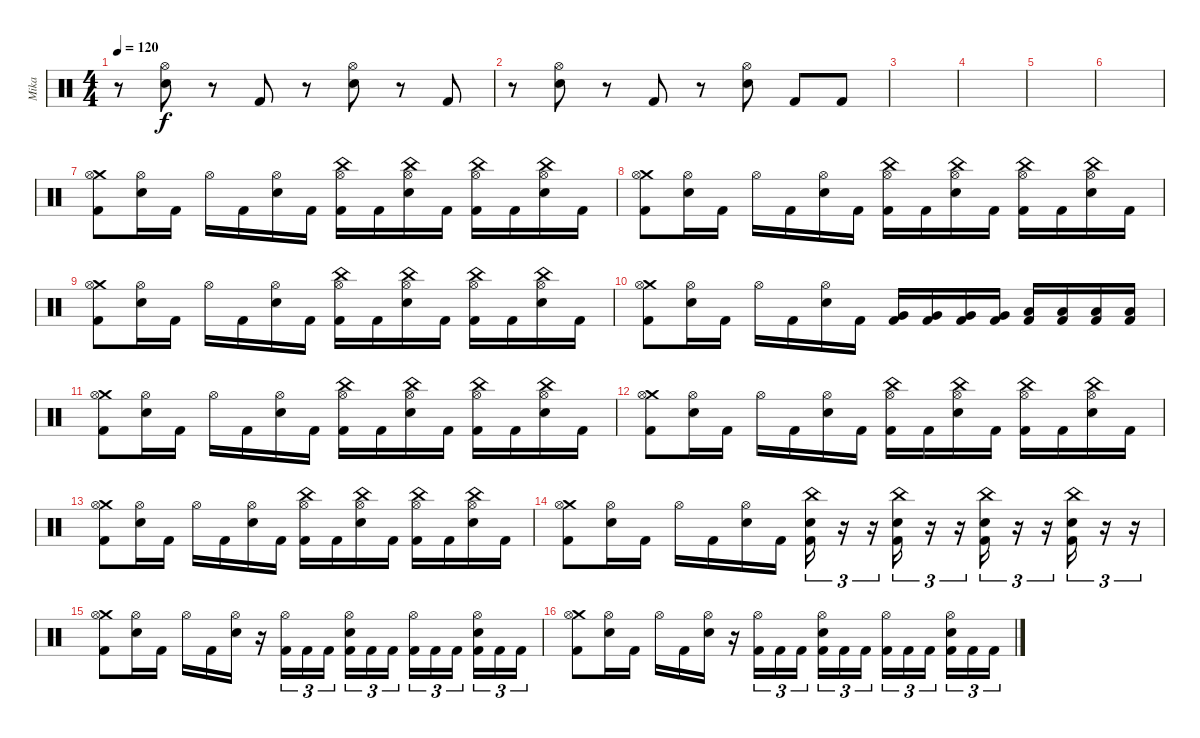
\track ("Mika" "Mika") {instrument percussion}
\staff {score}
\articulation defaults
\ts (4 4)
\tempo 120
\clef neutral
\ks c
r.8{dy f} ("Hi-Hat (open)" "Electric Snare (hit)").8 r.8 "Kick (hit) 2".8 r.8 ("Hi-Hat (open)" "Electric Snare (hit)").8 r.8 "Kick (hit) 2".8 |
r.8 ("Hi-Hat (open)" "Electric Snare (hit)").8 r.8 "Kick (hit) 2".8 r.8 ("Hi-Hat (open)" "Electric Snare (hit)").8 "Kick (hit) 2".8 "Kick (hit) 2".8 |
|
|
|
|
("Crash medium (hit)" "Hi-Hat (open)" "Kick (hit) 2").8 ("Hi-Hat (open)" "Electric Snare (hit)").16 "Kick (hit) 2".16 "Hi-Hat (open)".16 "Kick (hit) 2".16 ("Hi-Hat (open)" "Electric Snare (hit)").16 "Kick (hit) 2".16 ("China (hit)" "Hi-Hat (open)" "Kick (hit) 2").16 "Kick (hit) 2".16 ("China (hit)" "Hi-Hat (open)" "Electric Snare (hit)").16 "Kick (hit) 2".16 ("China (hit)" "Hi-Hat (open)" "Kick (hit) 2").16 "Kick (hit) 2".16 ("China (hit)" "Hi-Hat (open)" "Electric Snare (hit)").16 "Kick (hit) 2".16 |
("Crash medium (hit)" "Hi-Hat (open)" "Kick (hit) 2").8 ("Hi-Hat (open)" "Electric Snare (hit)").16 "Kick (hit) 2".16 "Hi-Hat (open)".16 "Kick (hit) 2".16 ("Hi-Hat (open)" "Electric Snare (hit)").16 "Kick (hit) 2".16 ("China (hit)" "Hi-Hat (open)" "Kick (hit) 2").16 "Kick (hit) 2".16 ("China (hit)" "Hi-Hat (open)" "Electric Snare (hit)").16 "Kick (hit) 2".16 ("China (hit)" "Hi-Hat (open)" "Kick (hit) 2").16 "Kick (hit) 2".16 ("China (hit)" "Hi-Hat (open)" "Electric Snare (hit)").16 "Kick (hit) 2".16 |
("Crash medium (hit)" "Hi-Hat (open)" "Kick (hit) 2").8 ("Hi-Hat (open)" "Electric Snare (hit)").16 "Kick (hit) 2".16 "Hi-Hat (open)".16 "Kick (hit) 2".16 ("Hi-Hat (open)" "Electric Snare (hit)").16 "Kick (hit) 2".16 ("China (hit)" "Hi-Hat (open)" "Kick (hit) 2").16 "Kick (hit) 2".16 ("China (hit)" "Hi-Hat (open)" "Electric Snare (hit)").16 "Kick (hit) 2".16 ("China (hit)" "Hi-Hat (open)" "Kick (hit) 2").16 "Kick (hit) 2".16 ("China (hit)" "Hi-Hat (open)" "Electric Snare (hit)").16 "Kick (hit) 2".16 |
("Crash medium (hit)" "Hi-Hat (open)" "Kick (hit) 2").8 ("Hi-Hat (open)" "Electric Snare (hit)").16 "Kick (hit) 2".16 "Hi-Hat (open)".16 "Kick (hit) 2".16 ("Hi-Hat (open)" "Electric Snare (hit)").16 "Kick (hit) 2".16 ("Very Low Tom (hit)" "Kick (hit) 2").16 ("Very Low Tom (hit)" "Kick (hit) 2").16 ("Very Low Tom (hit)" "Kick (hit) 2").16 ("Very Low Tom (hit)" "Kick (hit) 2").16 ("Low Floor Tom (hit)" "Kick (hit) 2").16 ("Low Floor Tom (hit)" "Kick (hit) 2").16 ("Low Floor Tom (hit)" "Kick (hit) 2").16 ("Low Floor Tom (hit)" "Kick (hit) 2").16 |
("Crash medium (hit)" "Hi-Hat (open)" "Kick (hit) 2").8 ("Hi-Hat (open)" "Electric Snare (hit)").16 "Kick (hit) 2".16 "Hi-Hat (open)".16 "Kick (hit) 2".16 ("Hi-Hat (open)" "Electric Snare (hit)").16 "Kick (hit) 2".16 ("China (hit)" "Hi-Hat (open)" "Kick (hit) 2").16 "Kick (hit) 2".16 ("China (hit)" "Hi-Hat (open)" "Electric Snare (hit)").16 "Kick (hit) 2".16 ("China (hit)" "Hi-Hat (open)" "Kick (hit) 2").16 "Kick (hit) 2".16 ("China (hit)" "Hi-Hat (open)" "Electric Snare (hit)").16 "Kick (hit) 2".16 |
("Crash medium (hit)" "Hi-Hat (open)" "Kick (hit) 2").8 ("Hi-Hat (open)" "Electric Snare (hit)").16 "Kick (hit) 2".16 "Hi-Hat (open)".16 "Kick (hit) 2".16 ("Hi-Hat (open)" "Electric Snare (hit)").16 "Kick (hit) 2".16 ("China (hit)" "Hi-Hat (open)" "Kick (hit) 2").16 "Kick (hit) 2".16 ("China (hit)" "Hi-Hat (open)" "Electric Snare (hit)").16 "Kick (hit) 2".16 ("China (hit)" "Hi-Hat (open)" "Kick (hit) 2").16 "Kick (hit) 2".16 ("China (hit)" "Hi-Hat (open)" "Electric Snare (hit)").16 "Kick (hit) 2".16 |
("Crash medium (hit)" "Hi-Hat (open)" "Kick (hit) 2").8 ("Hi-Hat (open)" "Electric Snare (hit)").16 "Kick (hit) 2".16 "Hi-Hat (open)".16 "Kick (hit) 2".16 ("Hi-Hat (open)" "Electric Snare (hit)").16 "Kick (hit) 2".16 ("China (hit)" "Hi-Hat (open)" "Kick (hit) 2").16 "Kick (hit) 2".16 ("China (hit)" "Hi-Hat (open)" "Electric Snare (hit)").16 "Kick (hit) 2".16 ("China (hit)" "Hi-Hat (open)" "Kick (hit) 2").16 "Kick (hit) 2".16 ("China (hit)" "Hi-Hat (open)" "Electric Snare (hit)").16 "Kick (hit) 2".16 |
("Crash medium (hit)" "Hi-Hat (open)" "Kick (hit) 2").8 ("Hi-Hat (open)" "Electric Snare (hit)").16 "Kick (hit) 2".16 "Hi-Hat (open)".16 "Kick (hit) 2".16 ("Hi-Hat (open)" "Electric Snare (hit)").16 "Kick (hit) 2".16 ("China (hit)" "Electric Snare (hit)" "Kick (hit) 2").16{tu (3 2)} r.16{tu (3 2)} r.16{tu (3 2)} ("China (hit)" "Electric Snare (hit)" "Kick (hit) 2").16{tu (3 2)} r.16{tu (3 2)} r.16{tu (3 2)} ("China (hit)" "Electric Snare (hit)" "Kick (hit) 2").16{tu (3 2)} r.16{tu (3 2)} r.16{tu (3 2)} ("China (hit)" "Electric Snare (hit)" "Kick (hit) 2").16{tu (3 2)} r.16{tu (3 2)} r.16{tu (3 2)} |
("Crash medium (hit)" "Hi-Hat (open)" "Kick (hit) 2").8 ("Hi-Hat (open)" "Electric Snare (hit)").16 "Kick (hit) 2".16 "Hi-Hat (open)".16 "Kick (hit) 2".16 ("Hi-Hat (open)" "Electric Snare (hit)").16 r.16 ("Hi-Hat (open)" "Kick (hit) 2").16{tu (3 2)} "Kick (hit) 2".16{tu (3 2)} "Kick (hit) 2".16{tu (3 2) beam splitsecondary} ("Hi-Hat (open)" "Electric Snare (hit)" "Kick (hit) 2").16{tu (3 2)} "Kick (hit) 2".16{tu (3 2)} "Kick (hit) 2".16{tu (3 2)} ("Hi-Hat (open)" "Kick (hit) 2").16{tu (3 2)} "Kick (hit) 2".16{tu (3 2)} "Kick (hit) 2".16{tu (3 2) beam splitsecondary} ("Hi-Hat (open)" "Electric Snare (hit)" "Kick (hit) 2").16{tu (3 2)} "Kick (hit) 2".16{tu (3 2)} "Kick (hit) 2".16{tu (3 2)} |
("Crash medium (hit)" "Hi-Hat (open)" "Kick (hit) 2").8 ("Hi-Hat (open)" "Electric Snare (hit)").16 "Kick (hit) 2".16 "Hi-Hat (open)".16 "Kick (hit) 2".16 ("Hi-Hat (open)" "Electric Snare (hit)").16 r.16 ("Hi-Hat (open)" "Kick (hit) 2").16{tu (3 2)} "Kick (hit) 2".16{tu (3 2)} "Kick (hit) 2".16{tu (3 2) beam splitsecondary} ("Hi-Hat (open)" "Electric Snare (hit)" "Kick (hit) 2").16{tu (3 2)} "Kick (hit) 2".16{tu (3 2)} "Kick (hit) 2".16{tu (3 2)} ("Hi-Hat (open)" "Kick (hit) 2").16{tu (3 2)} "Kick (hit) 2".16{tu (3 2)} "Kick (hit) 2".16{tu (3 2) beam splitsecondary} ("Hi-Hat (open)" "Electric Snare (hit)" "Kick (hit) 2").16{tu (3 2)} "Kick (hit) 2".16{tu (3 2)} "Kick (hit) 2".16{tu (3 2)}
